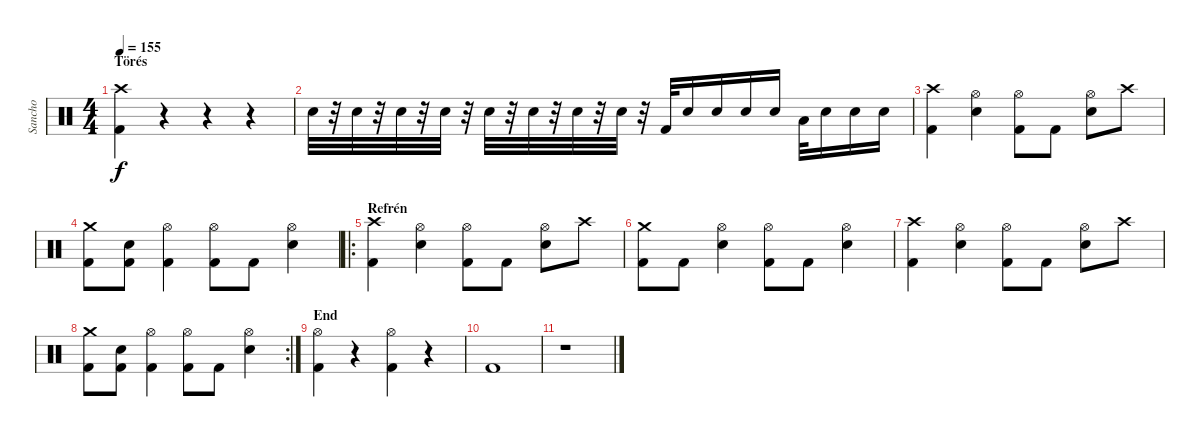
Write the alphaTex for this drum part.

\track ("Sancho" "Sancho") {instrument percussion}
\staff {score}
\articulation defaults
\ts (4 4)
\section ("" "Törés")
\tempo 155
\clef neutral
\ks c
("Crash high (hit)" "Kick (hit) 2").4{dy f} r.4 r.4 r.4 |
"Electric Snare (hit)".32 r.32 "Electric Snare (hit)".32 r.32 "Electric Snare (hit)".32 r.32 "Electric Snare (hit)".32 r.32 "Electric Snare (hit)".32 r.32 "Electric Snare (hit)".32 r.32 "Electric Snare (hit)".32 r.32 "Electric Snare (hit)".32 r.32 "Kick (hit) 2".32 "Electric Snare (hit)".16 "Electric Snare (hit)".16 "Electric Snare (hit)".16 "Electric Snare (hit)".16 "Low Tom (hit)".32 "Electric Snare (hit)".16 "Electric Snare (hit)".16 "Electric Snare (hit)".16 |
("Crash high (hit)" "Kick (hit) 2").4 ("Hi-Hat (open)" "Electric Snare (hit)").4 ("Hi-Hat (open)" "Kick (hit) 2").8 "Kick (hit) 2".8 ("Hi-Hat (open)" "Electric Snare (hit)").8 "Crash high (hit)".8 |
("Crash medium (hit)" "Kick (hit) 2").8 ("Electric Snare (hit)" "Kick (hit) 2").8 ("Hi-Hat (open)" "Kick (hit) 2").4 ("Hi-Hat (open)" "Kick (hit) 2").8 "Kick (hit) 2".8 ("Hi-Hat (open)" "Electric Snare (hit)").4 |
\ro
\section ("" "Refrén")
("Crash high (hit)" "Kick (hit) 2").4 ("Hi-Hat (open)" "Electric Snare (hit)").4 ("Hi-Hat (open)" "Kick (hit) 2").8 "Kick (hit) 2".8 ("Hi-Hat (open)" "Electric Snare (hit)").8 "Crash high (hit)".8 |
("Crash medium (hit)" "Kick (hit) 2").8 "Kick (hit) 2".8 ("Hi-Hat (open)" "Electric Snare (hit)").4 ("Hi-Hat (open)" "Kick (hit) 2").8 "Kick (hit) 2".8 ("Hi-Hat (open)" "Electric Snare (hit)").4 |
("Crash high (hit)" "Kick (hit) 2").4 ("Hi-Hat (open)" "Electric Snare (hit)").4 ("Hi-Hat (open)" "Kick (hit) 2").8 "Kick (hit) 2".8 ("Hi-Hat (open)" "Electric Snare (hit)").8 "Crash high (hit)".8 |
\rc 2
("Crash medium (hit)" "Kick (hit) 2").8 ("Electric Snare (hit)" "Kick (hit) 2").8 ("Hi-Hat (open)" "Kick (hit) 2").4 ("Hi-Hat (open)" "Kick (hit) 2").8 "Kick (hit) 2".8 ("Hi-Hat (open)" "Electric Snare (hit)").4 |
\section ("" "End")
("Hi-Hat (open)" "Kick (hit) 2").4 r.4 ("Hi-Hat (open)" "Kick (hit) 2").4 r.4 |
"Kick (hit) 2".1 |
r.1
